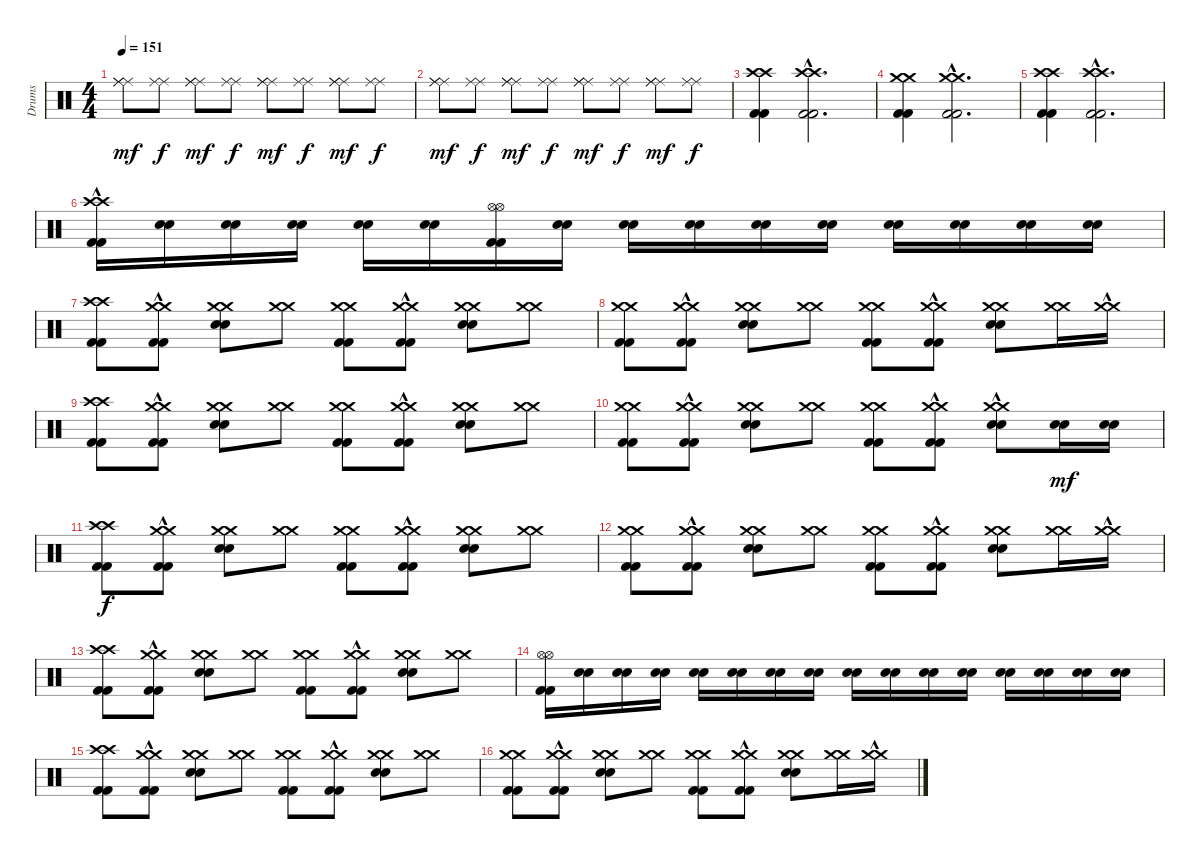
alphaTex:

\track ("Drums" "Drums") {instrument percussion}
\staff {score}
\articulation defaults
\ts (4 4)
\tempo 151
\clef neutral
\ks c
("Ride (middle)" "Ride (middle)" "Ride (middle)").8{dy mf} ("Ride (middle)" "Ride (middle)").8{dy f} ("Ride (middle)" "Ride (middle)" "Ride (middle)").8{dy mf} ("Ride (middle)" "Ride (middle)").8{dy f} ("Ride (middle)" "Ride (middle)" "Ride (middle)").8{dy mf} ("Ride (middle)" "Ride (middle)").8{dy f} ("Ride (middle)" "Ride (middle)" "Ride (middle)").8{dy mf} ("Ride (middle)" "Ride (middle)").8{dy f} |
("Ride (middle)" "Ride (middle)" "Ride (middle)").8{dy mf} ("Ride (middle)" "Ride (middle)").8{dy f} ("Ride (middle)" "Ride (middle)" "Ride (middle)").8{dy mf} ("Ride (middle)" "Ride (middle)").8{dy f} ("Ride (middle)" "Ride (middle)" "Ride (middle)").8{dy mf} ("Ride (middle)" "Ride (middle)").8{dy f} ("Ride (middle)" "Ride (middle)" "Ride (middle)").8{dy mf} ("Ride (middle)" "Ride (middle)").8{dy f} |
("Kick (hit) 2" "Kick (hit) 2" "Crash high (hit)" "Crash high (hit)").4 ("Kick (hit) 2"{hac} "Kick (hit) 2"{hac} "Crash high (hit)" "Crash high (hit)").2{d} |
("Kick (hit) 2" "Kick (hit) 2" "Crash medium (hit)" "Crash medium (hit)").4 ("Kick (hit) 2"{hac} "Kick (hit) 2"{hac} "Crash medium (hit)" "Crash medium (hit)").2{d} |
("Kick (hit) 2" "Kick (hit) 2" "Crash high (hit)" "Crash high (hit)").4 ("Kick (hit) 2"{hac} "Kick (hit) 2"{hac} "Crash high (hit)"{hac} "Crash high (hit)"{hac}).2{d} |
("Kick (hit) 2"{hac} "Kick (hit) 2"{hac} "Crash high (hit)" "Crash high (hit)").16 ("Electric Snare (hit)" "Electric Snare (hit)").16 ("Electric Snare (hit)" "Electric Snare (hit)").16 ("Electric Snare (hit)" "Electric Snare (hit)").16 ("Electric Snare (hit)" "Electric Snare (hit)").16 ("Electric Snare (hit)" "Electric Snare (hit)").16 ("Kick (hit) 2" "Kick (hit) 2" "Hi-Hat (open)" "Hi-Hat (open)").16 ("Electric Snare (hit)" "Electric Snare (hit)").16 ("Electric Snare (hit)" "Electric Snare (hit)").16 ("Electric Snare (hit)" "Electric Snare (hit)").16 ("Electric Snare (hit)" "Electric Snare (hit)").16 ("Electric Snare (hit)" "Electric Snare (hit)").16 ("Electric Snare (hit)" "Electric Snare (hit)").16 ("Electric Snare (hit)" "Electric Snare (hit)").16 ("Electric Snare (hit)" "Electric Snare (hit)").16 ("Electric Snare (hit)" "Electric Snare (hit)").16 |
("Kick (hit) 2" "Kick (hit) 2" "Crash high (hit)" "Crash high (hit)").8 ("Kick (hit) 2"{hac} "Kick (hit) 2"{hac} "Crash medium (hit)" "Crash medium (hit)").8 ("Electric Snare (hit)" "Electric Snare (hit)" "Crash medium (hit)" "Crash medium (hit)").8 ("Crash medium (hit)" "Crash medium (hit)").8 ("Kick (hit) 2" "Kick (hit) 2" "Crash medium (hit)" "Crash medium (hit)").8 ("Kick (hit) 2"{hac} "Kick (hit) 2"{hac} "Crash medium (hit)" "Crash medium (hit)").8 ("Electric Snare (hit)" "Electric Snare (hit)" "Crash medium (hit)" "Crash medium (hit)").8 ("Crash medium (hit)" "Crash medium (hit)").8 |
("Kick (hit) 2" "Kick (hit) 2" "Crash medium (hit)" "Crash medium (hit)").8 ("Kick (hit) 2"{hac} "Kick (hit) 2"{hac} "Crash medium (hit)" "Crash medium (hit)").8 ("Electric Snare (hit)" "Electric Snare (hit)" "Crash medium (hit)" "Crash medium (hit)").8 ("Crash medium (hit)" "Crash medium (hit)").8 ("Kick (hit) 2" "Kick (hit) 2" "Crash medium (hit)" "Crash medium (hit)").8 ("Kick (hit) 2"{hac} "Kick (hit) 2"{hac} "Crash medium (hit)" "Crash medium (hit)").8 ("Electric Snare (hit)" "Electric Snare (hit)" "Crash medium (hit)" "Crash medium (hit)").8 ("Crash medium (hit)" "Crash medium (hit)").16 ("Crash medium (hit)"{hac} "Crash medium (hit)"{hac}).16 |
("Kick (hit) 2" "Kick (hit) 2" "Crash high (hit)" "Crash high (hit)").8 ("Kick (hit) 2"{hac} "Kick (hit) 2"{hac} "Crash medium (hit)" "Crash medium (hit)").8 ("Electric Snare (hit)" "Electric Snare (hit)" "Crash medium (hit)" "Crash medium (hit)").8 ("Crash medium (hit)" "Crash medium (hit)").8 ("Kick (hit) 2" "Kick (hit) 2" "Crash medium (hit)" "Crash medium (hit)").8 ("Kick (hit) 2"{hac} "Kick (hit) 2"{hac} "Crash medium (hit)" "Crash medium (hit)").8 ("Electric Snare (hit)" "Electric Snare (hit)" "Crash medium (hit)" "Crash medium (hit)").8 ("Crash medium (hit)" "Crash medium (hit)").8 |
("Kick (hit) 2" "Kick (hit) 2" "Crash medium (hit)" "Crash medium (hit)").8 ("Kick (hit) 2"{hac} "Kick (hit) 2"{hac} "Crash medium (hit)" "Crash medium (hit)").8 ("Electric Snare (hit)" "Electric Snare (hit)" "Crash medium (hit)" "Crash medium (hit)").8 ("Crash medium (hit)" "Crash medium (hit)").8 ("Kick (hit) 2" "Kick (hit) 2" "Crash medium (hit)" "Crash medium (hit)").8 ("Kick (hit) 2"{hac} "Kick (hit) 2"{hac} "Crash medium (hit)" "Crash medium (hit)").8 ("Electric Snare (hit)" "Electric Snare (hit)" "Crash medium (hit)"{hac} "Crash medium (hit)"{hac}).8 ("Electric Snare (hit)" "Electric Snare (hit)").16{dy mf} ("Electric Snare (hit)" "Electric Snare (hit)").16 |
("Kick (hit) 2" "Kick (hit) 2" "Crash high (hit)" "Crash high (hit)").8{dy f} ("Kick (hit) 2"{hac} "Kick (hit) 2"{hac} "Crash medium (hit)" "Crash medium (hit)").8 ("Electric Snare (hit)" "Electric Snare (hit)" "Crash medium (hit)" "Crash medium (hit)").8 ("Crash medium (hit)" "Crash medium (hit)").8 ("Kick (hit) 2" "Kick (hit) 2" "Crash medium (hit)" "Crash medium (hit)").8 ("Kick (hit) 2"{hac} "Kick (hit) 2"{hac} "Crash medium (hit)" "Crash medium (hit)").8 ("Electric Snare (hit)" "Electric Snare (hit)" "Crash medium (hit)" "Crash medium (hit)").8 ("Crash medium (hit)" "Crash medium (hit)").8 |
("Kick (hit) 2" "Kick (hit) 2" "Crash medium (hit)" "Crash medium (hit)").8 ("Kick (hit) 2"{hac} "Kick (hit) 2"{hac} "Crash medium (hit)" "Crash medium (hit)").8 ("Electric Snare (hit)" "Electric Snare (hit)" "Crash medium (hit)" "Crash medium (hit)").8 ("Crash medium (hit)" "Crash medium (hit)").8 ("Kick (hit) 2" "Kick (hit) 2" "Crash medium (hit)" "Crash medium (hit)").8 ("Kick (hit) 2"{hac} "Kick (hit) 2"{hac} "Crash medium (hit)" "Crash medium (hit)").8 ("Electric Snare (hit)" "Electric Snare (hit)" "Crash medium (hit)" "Crash medium (hit)").8 ("Crash medium (hit)" "Crash medium (hit)").16 ("Crash medium (hit)"{hac} "Crash medium (hit)"{hac}).16 |
("Kick (hit) 2" "Kick (hit) 2" "Crash high (hit)" "Crash high (hit)").8 ("Kick (hit) 2"{hac} "Kick (hit) 2"{hac} "Crash medium (hit)" "Crash medium (hit)").8 ("Electric Snare (hit)" "Electric Snare (hit)" "Crash medium (hit)" "Crash medium (hit)").8 ("Crash medium (hit)" "Crash medium (hit)").8 ("Kick (hit) 2" "Kick (hit) 2" "Crash medium (hit)" "Crash medium (hit)").8 ("Kick (hit) 2"{hac} "Kick (hit) 2"{hac} "Crash medium (hit)" "Crash medium (hit)").8 ("Electric Snare (hit)" "Electric Snare (hit)" "Crash medium (hit)" "Crash medium (hit)").8 ("Crash medium (hit)" "Crash medium (hit)").8 |
("Kick (hit) 2" "Kick (hit) 2" "Hi-Hat (open)" "Hi-Hat (open)").16 ("Electric Snare (hit)" "Electric Snare (hit)").16 ("Electric Snare (hit)" "Electric Snare (hit)").16 ("Electric Snare (hit)" "Electric Snare (hit)").16 ("Electric Snare (hit)" "Electric Snare (hit)").16 ("Electric Snare (hit)" "Electric Snare (hit)").16 ("Electric Snare (hit)" "Electric Snare (hit)").16 ("Electric Snare (hit)" "Electric Snare (hit)").16 ("Electric Snare (hit)" "Electric Snare (hit)").16 ("Electric Snare (hit)" "Electric Snare (hit)").16 ("Electric Snare (hit)" "Electric Snare (hit)").16 ("Electric Snare (hit)" "Electric Snare (hit)").16 ("Electric Snare (hit)" "Electric Snare (hit)").16 ("Electric Snare (hit)" "Electric Snare (hit)").16 ("Electric Snare (hit)" "Electric Snare (hit)").16 ("Electric Snare (hit)" "Electric Snare (hit)").16 |
("Kick (hit) 2" "Kick (hit) 2" "Crash high (hit)" "Crash high (hit)").8 ("Kick (hit) 2"{hac} "Kick (hit) 2"{hac} "Crash medium (hit)" "Crash medium (hit)").8 ("Electric Snare (hit)" "Electric Snare (hit)" "Crash medium (hit)" "Crash medium (hit)").8 ("Crash medium (hit)" "Crash medium (hit)").8 ("Kick (hit) 2" "Kick (hit) 2" "Crash medium (hit)" "Crash medium (hit)").8 ("Kick (hit) 2"{hac} "Kick (hit) 2"{hac} "Crash medium (hit)" "Crash medium (hit)").8 ("Electric Snare (hit)" "Electric Snare (hit)" "Crash medium (hit)" "Crash medium (hit)").8 ("Crash medium (hit)" "Crash medium (hit)").8 |
("Kick (hit) 2" "Kick (hit) 2" "Crash medium (hit)" "Crash medium (hit)").8 ("Kick (hit) 2"{hac} "Kick (hit) 2"{hac} "Crash medium (hit)" "Crash medium (hit)").8 ("Electric Snare (hit)" "Electric Snare (hit)" "Crash medium (hit)" "Crash medium (hit)").8 ("Crash medium (hit)" "Crash medium (hit)").8 ("Kick (hit) 2" "Kick (hit) 2" "Crash medium (hit)" "Crash medium (hit)").8 ("Kick (hit) 2"{hac} "Kick (hit) 2"{hac} "Crash medium (hit)" "Crash medium (hit)").8 ("Electric Snare (hit)" "Electric Snare (hit)" "Crash medium (hit)" "Crash medium (hit)").8 ("Crash medium (hit)" "Crash medium (hit)").16 ("Crash medium (hit)"{hac} "Crash medium (hit)"{hac}).16
